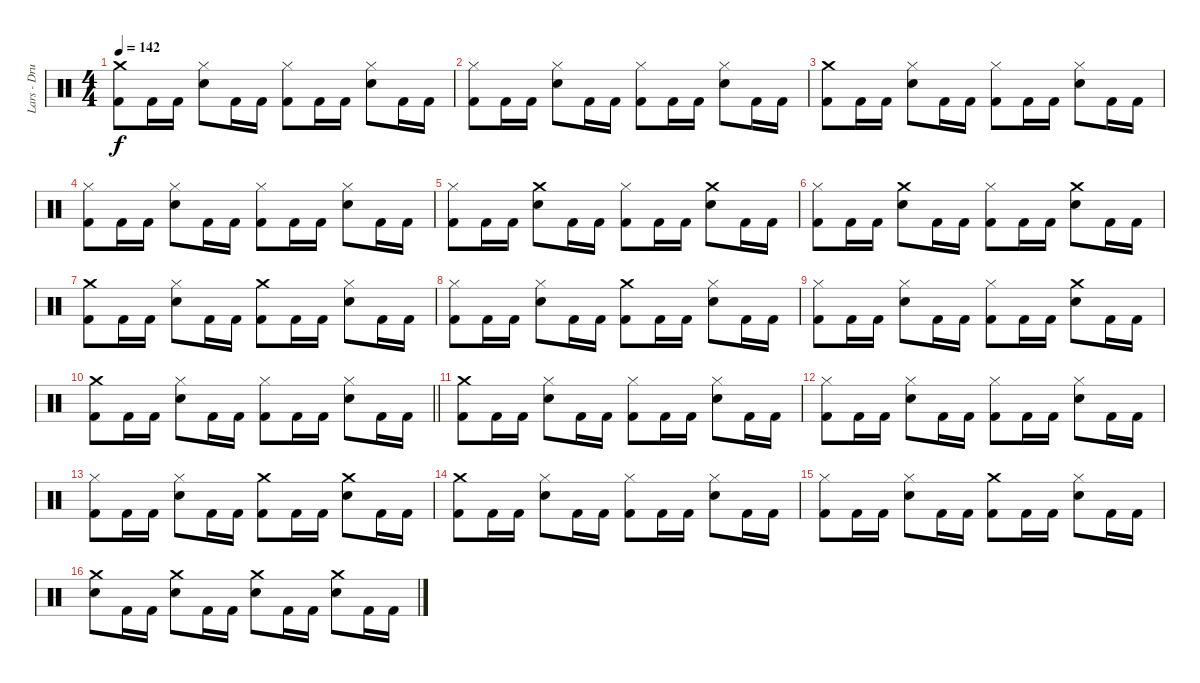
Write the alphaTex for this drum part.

\track ("Lars - Drums" "Lars - Dru") {instrument percussion}
\staff {score}
\articulation defaults
\ts (4 4)
\tempo 142
\clef neutral
\ks c
("Crash medium (hit)" "Kick (hit) 2").8{dy f} "Kick (hit) 2".16 "Kick (hit) 2".16 ("Hi-Hat (closed)" "Snare (hit) 2").8 "Kick (hit) 2".16 "Kick (hit) 2".16 ("Hi-Hat (closed)" "Kick (hit) 2").8 "Kick (hit) 2".16 "Kick (hit) 2".16 ("Hi-Hat (closed)" "Snare (hit) 2").8 "Kick (hit) 2".16 "Kick (hit) 2".16 |
("Hi-Hat (closed)" "Kick (hit) 2").8 "Kick (hit) 2".16 "Kick (hit) 2".16 ("Hi-Hat (closed)" "Snare (hit) 2").8 "Kick (hit) 2".16 "Kick (hit) 2".16 ("Hi-Hat (closed)" "Kick (hit) 2").8 "Kick (hit) 2".16 "Kick (hit) 2".16 ("Hi-Hat (closed)" "Snare (hit) 2").8 "Kick (hit) 2".16 "Kick (hit) 2".16 |
("Crash medium (hit)" "Kick (hit) 2").8 "Kick (hit) 2".16 "Kick (hit) 2".16 ("Hi-Hat (closed)" "Snare (hit) 2").8 "Kick (hit) 2".16 "Kick (hit) 2".16 ("Hi-Hat (closed)" "Kick (hit) 2").8 "Kick (hit) 2".16 "Kick (hit) 2".16 ("Hi-Hat (closed)" "Snare (hit) 2").8 "Kick (hit) 2".16 "Kick (hit) 2".16 |
("Hi-Hat (closed)" "Kick (hit) 2").8 "Kick (hit) 2".16 "Kick (hit) 2".16 ("Hi-Hat (closed)" "Snare (hit) 2").8 "Kick (hit) 2".16 "Kick (hit) 2".16 ("Hi-Hat (closed)" "Kick (hit) 2").8 "Kick (hit) 2".16 "Kick (hit) 2".16 ("Hi-Hat (closed)" "Snare (hit) 2").8 "Kick (hit) 2".16 "Kick (hit) 2".16 |
("Hi-Hat (closed)" "Kick (hit) 2").8 "Kick (hit) 2".16 "Kick (hit) 2".16 ("Crash medium (hit)" "Snare (hit) 2").8 "Kick (hit) 2".16 "Kick (hit) 2".16 ("Hi-Hat (closed)" "Kick (hit) 2").8 "Kick (hit) 2".16 "Kick (hit) 2".16 ("Crash medium (hit)" "Snare (hit) 2").8 "Kick (hit) 2".16 "Kick (hit) 2".16 |
("Hi-Hat (closed)" "Kick (hit) 2").8 "Kick (hit) 2".16 "Kick (hit) 2".16 ("Crash medium (hit)" "Snare (hit) 2").8 "Kick (hit) 2".16 "Kick (hit) 2".16 ("Hi-Hat (closed)" "Kick (hit) 2").8 "Kick (hit) 2".16 "Kick (hit) 2".16 ("Crash medium (hit)" "Snare (hit) 2").8 "Kick (hit) 2".16 "Kick (hit) 2".16 |
("Crash medium (hit)" "Kick (hit) 2").8 "Kick (hit) 2".16 "Kick (hit) 2".16 ("Hi-Hat (closed)" "Snare (hit) 2").8 "Kick (hit) 2".16 "Kick (hit) 2".16 ("Crash medium (hit)" "Kick (hit) 2").8 "Kick (hit) 2".16 "Kick (hit) 2".16 ("Hi-Hat (closed)" "Snare (hit) 2").8 "Kick (hit) 2".16 "Kick (hit) 2".16 |
("Hi-Hat (closed)" "Kick (hit) 2").8 "Kick (hit) 2".16 "Kick (hit) 2".16 ("Hi-Hat (closed)" "Snare (hit) 2").8 "Kick (hit) 2".16 "Kick (hit) 2".16 ("Crash medium (hit)" "Kick (hit) 2").8 "Kick (hit) 2".16 "Kick (hit) 2".16 ("Hi-Hat (closed)" "Snare (hit) 2").8 "Kick (hit) 2".16 "Kick (hit) 2".16 |
("Hi-Hat (closed)" "Kick (hit) 2").8 "Kick (hit) 2".16 "Kick (hit) 2".16 ("Hi-Hat (closed)" "Snare (hit) 2").8 "Kick (hit) 2".16 "Kick (hit) 2".16 ("Hi-Hat (closed)" "Kick (hit) 2").8 "Kick (hit) 2".16 "Kick (hit) 2".16 ("Crash medium (hit)" "Snare (hit) 2").8 "Kick (hit) 2".16 "Kick (hit) 2".16 |
\barLineRight lightlight
("Crash medium (hit)" "Kick (hit) 2").8 "Kick (hit) 2".16 "Kick (hit) 2".16 ("Hi-Hat (closed)" "Snare (hit) 2").8 "Kick (hit) 2".16 "Kick (hit) 2".16 ("Hi-Hat (closed)" "Kick (hit) 2").8 "Kick (hit) 2".16 "Kick (hit) 2".16 ("Hi-Hat (closed)" "Snare (hit) 2").8 "Kick (hit) 2".16 "Kick (hit) 2".16 |
("Crash medium (hit)" "Kick (hit) 2").8 "Kick (hit) 2".16 "Kick (hit) 2".16 ("Hi-Hat (closed)" "Snare (hit) 2").8 "Kick (hit) 2".16 "Kick (hit) 2".16 ("Hi-Hat (closed)" "Kick (hit) 2").8 "Kick (hit) 2".16 "Kick (hit) 2".16 ("Hi-Hat (closed)" "Snare (hit) 2").8 "Kick (hit) 2".16 "Kick (hit) 2".16 |
("Hi-Hat (closed)" "Kick (hit) 2").8 "Kick (hit) 2".16 "Kick (hit) 2".16 ("Hi-Hat (closed)" "Snare (hit) 2").8 "Kick (hit) 2".16 "Kick (hit) 2".16 ("Hi-Hat (closed)" "Kick (hit) 2").8 "Kick (hit) 2".16 "Kick (hit) 2".16 ("Hi-Hat (closed)" "Snare (hit) 2").8 "Kick (hit) 2".16 "Kick (hit) 2".16 |
("Hi-Hat (closed)" "Kick (hit) 2").8 "Kick (hit) 2".16 "Kick (hit) 2".16 ("Hi-Hat (closed)" "Snare (hit) 2").8 "Kick (hit) 2".16 "Kick (hit) 2".16 ("Crash medium (hit)" "Kick (hit) 2").8 "Kick (hit) 2".16 "Kick (hit) 2".16 ("Crash medium (hit)" "Snare (hit) 2").8 "Kick (hit) 2".16 "Kick (hit) 2".16 |
("Crash medium (hit)" "Kick (hit) 2").8 "Kick (hit) 2".16 "Kick (hit) 2".16 ("Hi-Hat (closed)" "Snare (hit) 2").8 "Kick (hit) 2".16 "Kick (hit) 2".16 ("Hi-Hat (closed)" "Kick (hit) 2").8 "Kick (hit) 2".16 "Kick (hit) 2".16 ("Hi-Hat (closed)" "Snare (hit) 2").8 "Kick (hit) 2".16 "Kick (hit) 2".16 |
("Hi-Hat (closed)" "Kick (hit) 2").8 "Kick (hit) 2".16 "Kick (hit) 2".16 ("Hi-Hat (closed)" "Snare (hit) 2").8 "Kick (hit) 2".16 "Kick (hit) 2".16 ("Crash medium (hit)" "Kick (hit) 2").8 "Kick (hit) 2".16 "Kick (hit) 2".16 ("Hi-Hat (closed)" "Snare (hit) 2").8 "Kick (hit) 2".16 "Kick (hit) 2".16 |
("Crash medium (hit)" "Snare (hit) 2").8 "Kick (hit) 2".16 "Kick (hit) 2".16 ("Crash medium (hit)" "Snare (hit) 2").8 "Kick (hit) 2".16 "Kick (hit) 2".16 ("Crash medium (hit)" "Snare (hit) 2").8 "Kick (hit) 2".16 "Kick (hit) 2".16 ("Crash medium (hit)" "Snare (hit) 2").8 "Kick (hit) 2".16 "Kick (hit) 2".16
